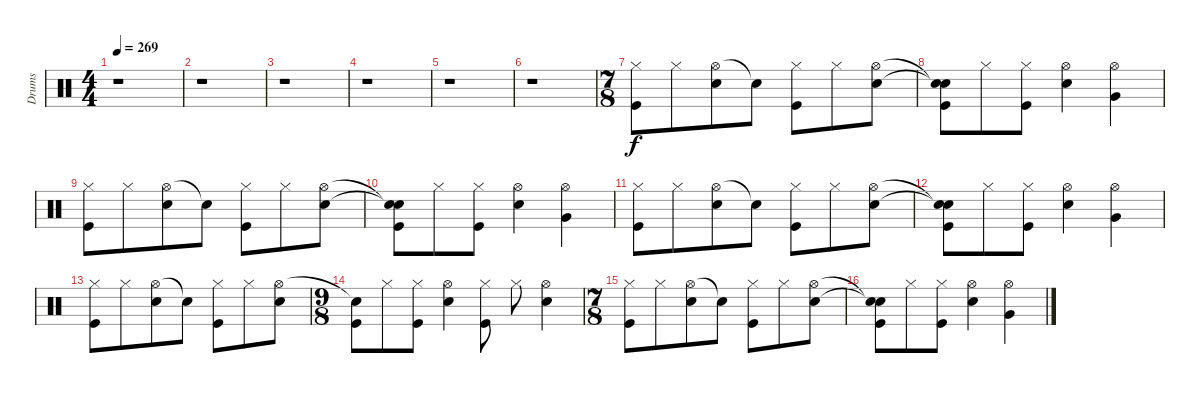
\track ("Drums" "Drums") {instrument percussion}
\staff {score}
\articulation defaults
\ts (4 4)
\tempo 269
\clef neutral
\ks c
r.1{dy f} |
r.1 |
r.1 |
r.1 |
r.1 |
r.1 |
\ts (7 8)
("Hi-Hat (closed)" "Kick (hit)").8 "Hi-Hat (closed)".8 ("Hi-Hat (open)" "Electric Snare (hit)").8 "Snare (hit)"{t}.8 ("Hi-Hat (closed)" "Kick (hit)").8 "Hi-Hat (closed)".8 ("Hi-Hat (open)" "Electric Snare (hit)").8 |
("Snare (hit)"{t} "Snare (hit)"{t} "Kick (hit)").8 "Hi-Hat (closed)".8 ("Hi-Hat (closed)" "Kick (hit)").8 ("Hi-Hat (open)" "Electric Snare (hit)").4 ("Hi-Hat (open)" "Very Low Tom (hit)").4 |
("Hi-Hat (closed)" "Kick (hit)").8 "Hi-Hat (closed)".8 ("Hi-Hat (open)" "Electric Snare (hit)").8 "Snare (hit)"{t}.8 ("Hi-Hat (closed)" "Kick (hit)").8 "Hi-Hat (closed)".8 ("Hi-Hat (open)" "Electric Snare (hit)").8 |
("Snare (hit)"{t} "Snare (hit)"{t} "Kick (hit)").8 "Hi-Hat (closed)".8 ("Hi-Hat (closed)" "Kick (hit)").8 ("Hi-Hat (open)" "Electric Snare (hit)").4 ("Hi-Hat (open)" "Very Low Tom (hit)").4 |
("Hi-Hat (closed)" "Kick (hit)").8 "Hi-Hat (closed)".8 ("Hi-Hat (open)" "Electric Snare (hit)").8 "Snare (hit)"{t}.8 ("Hi-Hat (closed)" "Kick (hit)").8 "Hi-Hat (closed)".8 ("Hi-Hat (open)" "Electric Snare (hit)").8 |
("Snare (hit)"{t} "Snare (hit)"{t} "Kick (hit)").8 "Hi-Hat (closed)".8 ("Hi-Hat (closed)" "Kick (hit)").8 ("Hi-Hat (open)" "Electric Snare (hit)").4 ("Hi-Hat (open)" "Very Low Tom (hit)").4 |
("Hi-Hat (closed)" "Kick (hit)").8 "Hi-Hat (closed)".8 ("Hi-Hat (open)" "Electric Snare (hit)").8 "Snare (hit)"{t}.8 ("Hi-Hat (closed)" "Kick (hit)").8 "Hi-Hat (closed)".8 ("Hi-Hat (open)" "Electric Snare (hit)").8 |
\ts (9 8)
("Snare (hit)"{t} "Kick (hit)").8 "Hi-Hat (closed)".8 ("Hi-Hat (closed)" "Kick (hit)").8 ("Hi-Hat (open)" "Electric Snare (hit)").4 ("Hi-Hat (closed)" "Kick (hit)").8 "Hi-Hat (closed)".8 ("Hi-Hat (open)" "Electric Snare (hit)").4 |
\ts (7 8)
("Hi-Hat (closed)" "Kick (hit)").8 "Hi-Hat (closed)".8 ("Hi-Hat (open)" "Electric Snare (hit)").8 "Snare (hit)"{t}.8 ("Hi-Hat (closed)" "Kick (hit)").8 "Hi-Hat (closed)".8 ("Hi-Hat (open)" "Electric Snare (hit)").8 |
("Snare (hit)"{t} "Snare (hit)"{t} "Kick (hit)").8 "Hi-Hat (closed)".8 ("Hi-Hat (closed)" "Kick (hit)").8 ("Hi-Hat (open)" "Electric Snare (hit)").4 ("Hi-Hat (open)" "Very Low Tom (hit)").4
